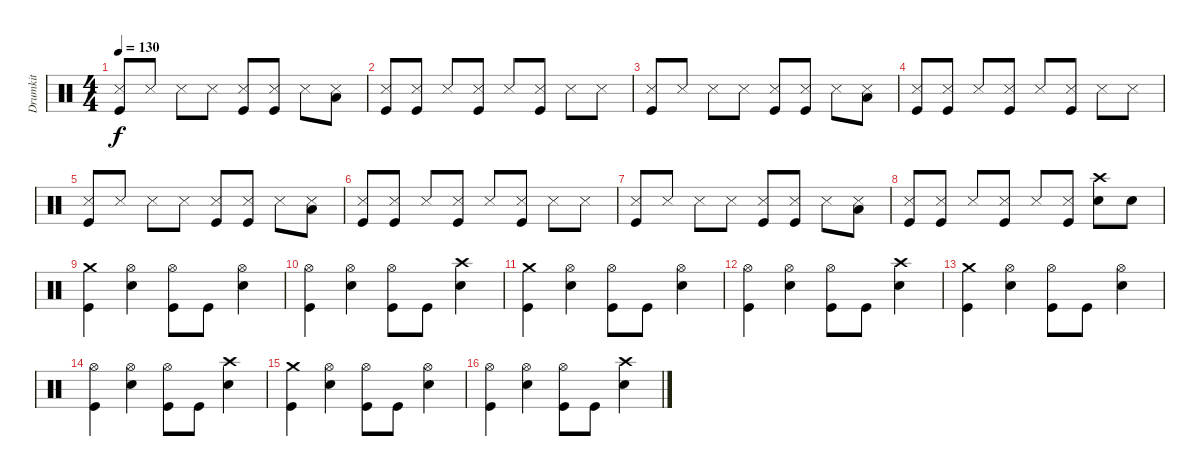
\track ("Drumkit" "Drumkit") {instrument percussion}
\staff {score}
\articulation defaults
\ts (4 4)
\tempo 130
\clef neutral
\ks c
("Snare (side stick) 3" "Kick (hit)").8{dy f} "Snare (side stick) 3".8 "Snare (side stick) 3".8 "Snare (side stick) 3".8 ("Snare (side stick) 3" "Kick (hit)").8 ("Snare (side stick) 3" "Kick (hit)").8 "Snare (side stick) 3".8 ("Snare (side stick) 3" "Low Tom (hit)").8 |
("Snare (side stick) 3" "Kick (hit)").8 ("Snare (side stick) 3" "Kick (hit)").8 "Snare (side stick) 3".8 ("Snare (side stick) 3" "Kick (hit)").8 "Snare (side stick) 3".8 ("Snare (side stick) 3" "Kick (hit)").8 "Snare (side stick) 3".8 "Snare (side stick) 3".8 |
("Snare (side stick) 3" "Kick (hit)").8 "Snare (side stick) 3".8 "Snare (side stick) 3".8 "Snare (side stick) 3".8 ("Snare (side stick) 3" "Kick (hit)").8 ("Snare (side stick) 3" "Kick (hit)").8 "Snare (side stick) 3".8 ("Snare (side stick) 3" "Low Tom (hit)").8 |
("Snare (side stick) 3" "Kick (hit)").8 ("Snare (side stick) 3" "Kick (hit)").8 "Snare (side stick) 3".8 ("Snare (side stick) 3" "Kick (hit)").8 "Snare (side stick) 3".8 ("Snare (side stick) 3" "Kick (hit)").8 "Snare (side stick) 3".8 "Snare (side stick) 3".8 |
("Snare (side stick) 3" "Kick (hit)").8 "Snare (side stick) 3".8 "Snare (side stick) 3".8 "Snare (side stick) 3".8 ("Snare (side stick) 3" "Kick (hit)").8 ("Snare (side stick) 3" "Kick (hit)").8 "Snare (side stick) 3".8 ("Snare (side stick) 3" "Low Tom (hit)").8 |
("Snare (side stick) 3" "Kick (hit)").8 ("Snare (side stick) 3" "Kick (hit)").8 "Snare (side stick) 3".8 ("Snare (side stick) 3" "Kick (hit)").8 "Snare (side stick) 3".8 ("Snare (side stick) 3" "Kick (hit)").8 "Snare (side stick) 3".8 "Snare (side stick) 3".8 |
("Snare (side stick) 3" "Kick (hit)").8 "Snare (side stick) 3".8 "Snare (side stick) 3".8 "Snare (side stick) 3".8 ("Snare (side stick) 3" "Kick (hit)").8 ("Snare (side stick) 3" "Kick (hit)").8 "Snare (side stick) 3".8 ("Snare (side stick) 3" "Low Tom (hit)").8 |
("Snare (side stick) 3" "Kick (hit)").8 ("Snare (side stick) 3" "Kick (hit)").8 "Snare (side stick) 3".8 ("Snare (side stick) 3" "Kick (hit)").8 "Snare (side stick) 3".8 ("Snare (side stick) 3" "Kick (hit)").8 ("Crash high (hit)" "Snare (hit) 2").8 "Snare (hit) 2".8 |
("Crash medium (hit)" "Kick (hit)").4 ("Hi-Hat (open)" "Snare (hit) 2").4 ("Hi-Hat (open)" "Kick (hit)").8 "Kick (hit)".8 ("Hi-Hat (open)" "Snare (hit) 2").4 |
("Hi-Hat (open)" "Kick (hit)").4 ("Hi-Hat (open)" "Snare (hit) 2").4 ("Hi-Hat (open)" "Kick (hit)").8 "Kick (hit)".8 ("Crash high (hit)" "Snare (hit) 2").4 |
("Crash medium (hit)" "Kick (hit)").4 ("Hi-Hat (open)" "Snare (hit) 2").4 ("Hi-Hat (open)" "Kick (hit)").8 "Kick (hit)".8 ("Hi-Hat (open)" "Snare (hit) 2").4 |
("Hi-Hat (open)" "Kick (hit)").4 ("Hi-Hat (open)" "Snare (hit) 2").4 ("Hi-Hat (open)" "Kick (hit)").8 "Kick (hit)".8 ("Crash high (hit)" "Snare (hit) 2").4 |
("Crash medium (hit)" "Kick (hit)").4 ("Hi-Hat (open)" "Snare (hit) 2").4 ("Hi-Hat (open)" "Kick (hit)").8 "Kick (hit)".8 ("Hi-Hat (open)" "Snare (hit) 2").4 |
("Hi-Hat (open)" "Kick (hit)").4 ("Hi-Hat (open)" "Snare (hit) 2").4 ("Hi-Hat (open)" "Kick (hit)").8 "Kick (hit)".8 ("Crash high (hit)" "Snare (hit) 2").4 |
("Crash medium (hit)" "Kick (hit)").4 ("Hi-Hat (open)" "Snare (hit) 2").4 ("Hi-Hat (open)" "Kick (hit)").8 "Kick (hit)".8 ("Hi-Hat (open)" "Snare (hit) 2").4 |
("Hi-Hat (open)" "Kick (hit)").4 ("Hi-Hat (open)" "Snare (hit) 2").4 ("Hi-Hat (open)" "Kick (hit)").8 "Kick (hit)".8 ("Crash high (hit)" "Snare (hit) 2").4
